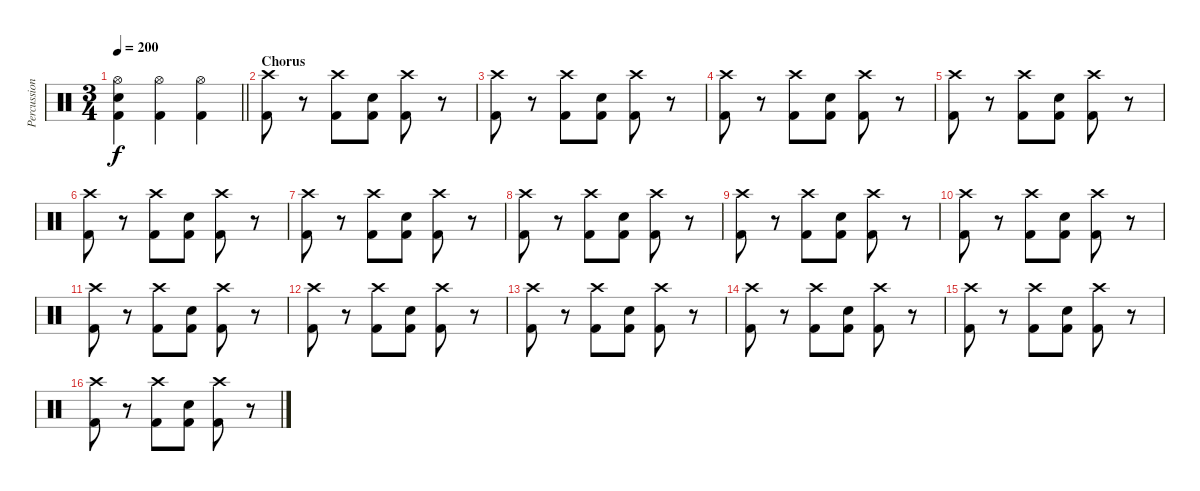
\track ("Percussion" "Percussion") {instrument percussion}
\staff {score}
\articulation defaults
\ts (3 4)
\tempo 200
\clef neutral
\barLineRight lightlight
\ks c
("Hi-Hat (open)" "Electric Snare (hit)" "Kick (hit) 2").4{dy f} ("Hi-Hat (open)" "Kick (hit) 2").4 ("Hi-Hat (open)" "Kick (hit) 2").4 |
\section ("" "Chorus")
("Crash high (hit)" "Kick (hit) 2").8 r.8 ("Crash high (hit)" "Kick (hit) 2").8 ("Electric Snare (hit)" "Kick (hit) 2").8 ("Crash high (hit)" "Kick (hit) 2").8 r.8 |
("Crash high (hit)" "Kick (hit) 2").8 r.8 ("Crash high (hit)" "Kick (hit) 2").8 ("Electric Snare (hit)" "Kick (hit) 2").8 ("Crash high (hit)" "Kick (hit) 2").8 r.8 |
("Crash high (hit)" "Kick (hit) 2").8 r.8 ("Crash high (hit)" "Kick (hit) 2").8 ("Electric Snare (hit)" "Kick (hit) 2").8 ("Crash high (hit)" "Kick (hit) 2").8 r.8 |
("Crash high (hit)" "Kick (hit) 2").8 r.8 ("Crash high (hit)" "Kick (hit) 2").8 ("Electric Snare (hit)" "Kick (hit) 2").8 ("Crash high (hit)" "Kick (hit) 2").8 r.8 |
("Crash high (hit)" "Kick (hit) 2").8 r.8 ("Crash high (hit)" "Kick (hit) 2").8 ("Electric Snare (hit)" "Kick (hit) 2").8 ("Crash high (hit)" "Kick (hit) 2").8 r.8 |
("Crash high (hit)" "Kick (hit) 2").8 r.8 ("Crash high (hit)" "Kick (hit) 2").8 ("Electric Snare (hit)" "Kick (hit) 2").8 ("Crash high (hit)" "Kick (hit) 2").8 r.8 |
("Crash high (hit)" "Kick (hit) 2").8 r.8 ("Crash high (hit)" "Kick (hit) 2").8 ("Electric Snare (hit)" "Kick (hit) 2").8 ("Crash high (hit)" "Kick (hit) 2").8 r.8 |
("Crash high (hit)" "Kick (hit) 2").8 r.8 ("Crash high (hit)" "Kick (hit) 2").8 ("Electric Snare (hit)" "Kick (hit) 2").8 ("Crash high (hit)" "Kick (hit) 2").8 r.8 |
("Crash high (hit)" "Kick (hit) 2").8 r.8 ("Crash high (hit)" "Kick (hit) 2").8 ("Electric Snare (hit)" "Kick (hit) 2").8 ("Crash high (hit)" "Kick (hit) 2").8 r.8 |
("Crash high (hit)" "Kick (hit) 2").8 r.8 ("Crash high (hit)" "Kick (hit) 2").8 ("Electric Snare (hit)" "Kick (hit) 2").8 ("Crash high (hit)" "Kick (hit) 2").8 r.8 |
("Crash high (hit)" "Kick (hit) 2").8 r.8 ("Crash high (hit)" "Kick (hit) 2").8 ("Electric Snare (hit)" "Kick (hit) 2").8 ("Crash high (hit)" "Kick (hit) 2").8 r.8 |
("Crash high (hit)" "Kick (hit) 2").8 r.8 ("Crash high (hit)" "Kick (hit) 2").8 ("Electric Snare (hit)" "Kick (hit) 2").8 ("Crash high (hit)" "Kick (hit) 2").8 r.8 |
("Crash high (hit)" "Kick (hit) 2").8 r.8 ("Crash high (hit)" "Kick (hit) 2").8 ("Electric Snare (hit)" "Kick (hit) 2").8 ("Crash high (hit)" "Kick (hit) 2").8 r.8 |
("Crash high (hit)" "Kick (hit) 2").8 r.8 ("Crash high (hit)" "Kick (hit) 2").8 ("Electric Snare (hit)" "Kick (hit) 2").8 ("Crash high (hit)" "Kick (hit) 2").8 r.8 |
("Crash high (hit)" "Kick (hit) 2").8 r.8 ("Crash high (hit)" "Kick (hit) 2").8 ("Electric Snare (hit)" "Kick (hit) 2").8 ("Crash high (hit)" "Kick (hit) 2").8 r.8
